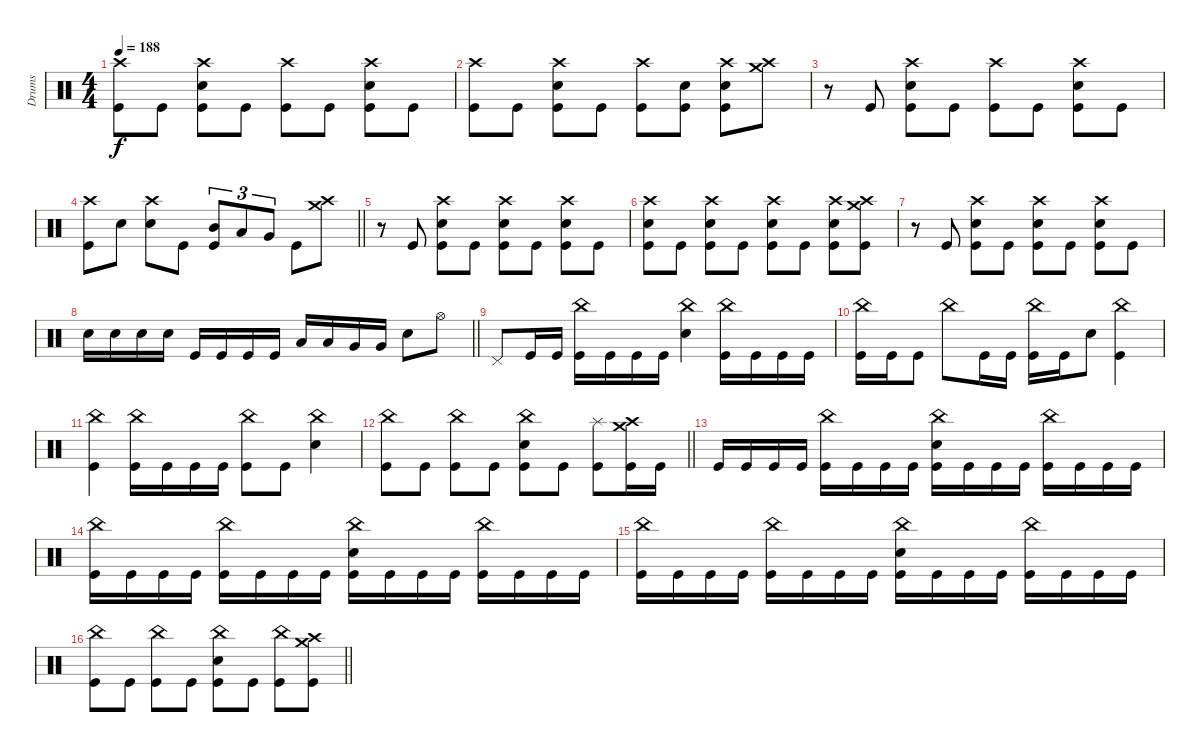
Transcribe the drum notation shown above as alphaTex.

\track ("Drums" "Drums") {instrument percussion}
\staff
\articulation defaults
\ts (4 4)
\tempo 188
\clef neutral
\ks c
("Crash high (hit)" "Kick (hit)").8{dy f} "Kick (hit)".8 ("Crash high (hit)" "Electric Snare (hit)" "Kick (hit)").8 "Kick (hit)".8 ("Crash high (hit)" "Kick (hit)").8 "Kick (hit)".8 ("Crash high (hit)" "Electric Snare (hit)" "Kick (hit)").8 "Kick (hit)".8 |
("Crash high (hit)" "Kick (hit)").8 "Kick (hit)".8 ("Crash high (hit)" "Electric Snare (hit)" "Kick (hit)").8 "Kick (hit)".8 ("Crash high (hit)" "Kick (hit)").8 ("Electric Snare (hit)" "Kick (hit)").8 ("Crash high (hit)" "Electric Snare (hit)" "Kick (hit)").8 ("Crash high (hit)" "Crash medium (hit)").8 |
r.8 "Kick (hit)".8 ("Crash high (hit)" "Electric Snare (hit)" "Kick (hit)").8 "Kick (hit)".8 ("Crash high (hit)" "Kick (hit)").8 "Kick (hit)".8 ("Crash high (hit)" "Electric Snare (hit)" "Kick (hit)").8 "Kick (hit)".8 |
\barLineRight lightlight
("Crash high (hit)" "Kick (hit)").8 "Electric Snare (hit)".8 ("Crash high (hit)" "Electric Snare (hit)").8 "Kick (hit)".8 ("Mid Tom (hit)" "Kick (hit)").8{tu (3 2)} "Low Tom (hit)".8{tu (3 2)} "Very Low Tom (hit)".8{tu (3 2)} "Kick (hit)".8 ("Crash high (hit)" "Crash medium (hit)").8 |
r.8 "Kick (hit)".8 ("Crash high (hit)" "Electric Snare (hit)" "Kick (hit)").8 "Kick (hit)".8 ("Crash high (hit)" "Electric Snare (hit)" "Kick (hit)").8 "Kick (hit)".8 ("Crash high (hit)" "Electric Snare (hit)" "Kick (hit)").8 "Kick (hit)".8 |
("Crash high (hit)" "Electric Snare (hit)" "Kick (hit)").8 "Kick (hit)".8 ("Crash high (hit)" "Electric Snare (hit)" "Kick (hit)").8 "Kick (hit)".8 ("Crash high (hit)" "Electric Snare (hit)" "Kick (hit)").8 "Kick (hit)".8 ("Crash high (hit)" "Electric Snare (hit)" "Kick (hit)").8 ("Crash high (hit)" "Crash medium (hit)" "Kick (hit)").8 |
r.8 "Kick (hit)".8 ("Crash high (hit)" "Electric Snare (hit)" "Kick (hit)").8 "Kick (hit)".8 ("Crash high (hit)" "Electric Snare (hit)" "Kick (hit)").8 "Kick (hit)".8 ("Crash high (hit)" "Electric Snare (hit)" "Kick (hit)").8 "Kick (hit)".8 |
\barLineRight lightlight "Electric Snare (hit)".16 "Electric Snare (hit)".16 "Electric Snare (hit)".16 "Electric Snare (hit)".16 "Kick (hit)".16 "Kick (hit)".16 "Kick (hit)".16 "Kick (hit)".16 "Low Tom (hit)".16 "Low Tom (hit)".16 "Very Low Tom (hit)".16 "Very Low Tom (hit)".16 "Electric Snare (hit)".8 "Hi-Hat (open)".8
|
\section ("" "")
"Pedal Hi-Hat (hit)".8 "Kick (hit)".16 "Kick (hit)".16 ("China (hit)" "Kick (hit)").16 "Kick (hit)".16 "Kick (hit)".16 "Kick (hit)".16 ("China (hit)" "Electric Snare (hit)").4 ("China (hit)" "Kick (hit)").16 "Kick (hit)".16 "Kick (hit)".16 "Kick (hit)".16 |
("China (hit)" "Kick (hit)").16 "Kick (hit)".16 "Kick (hit)".8 "China (hit)".8 "Kick (hit)".16 "Kick (hit)".16 ("China (hit)" "Kick (hit)").16 "Kick (hit)".16 "Electric Snare (hit)".8 ("China (hit)" "Kick (hit)").4 |
("China (hit)" "Kick (hit)").4 ("China (hit)" "Kick (hit)").16 "Kick (hit)".16 "Kick (hit)".16 "Kick (hit)".16 ("China (hit)" "Kick (hit)").8 "Kick (hit)".8 ("China (hit)" "Electric Snare (hit)").4 |
\barLineRight lightlight
("China (hit)" "Kick (hit)").8 "Kick (hit)".8 ("China (hit)" "Kick (hit)").8 "Kick (hit)".8 ("China (hit)" "Electric Snare (hit)" "Kick (hit)").8 "Kick (hit)".8 ("Splash (hit)" "Kick (hit)").8 ("Crash high (hit)" "Crash medium (hit)" "Kick (hit)").16 "Kick (hit)".16 |
"Kick (hit)".16 "Kick (hit)".16 "Kick (hit)".16 "Kick (hit)".16 ("China (hit)" "Kick (hit)").16 "Kick (hit)".16 "Kick (hit)".16 "Kick (hit)".16 ("China (hit)" "Electric Snare (hit)" "Kick (hit)").16 "Kick (hit)".16 "Kick (hit)".16 "Kick (hit)".16 ("China (hit)" "Kick (hit)").16 "Kick (hit)".16 "Kick (hit)".16 "Kick (hit)".16 |
("China (hit)" "Kick (hit)").16 "Kick (hit)".16 "Kick (hit)".16 "Kick (hit)".16 ("China (hit)" "Kick (hit)").16 "Kick (hit)".16 "Kick (hit)".16 "Kick (hit)".16 ("China (hit)" "Electric Snare (hit)" "Kick (hit)").16 "Kick (hit)".16 "Kick (hit)".16 "Kick (hit)".16 ("China (hit)" "Kick (hit)").16 "Kick (hit)".16 "Kick (hit)".16 "Kick (hit)".16 |
("China (hit)" "Kick (hit)").16 "Kick (hit)".16 "Kick (hit)".16 "Kick (hit)".16 ("China (hit)" "Kick (hit)").16 "Kick (hit)".16 "Kick (hit)".16 "Kick (hit)".16 ("China (hit)" "Electric Snare (hit)" "Kick (hit)").16 "Kick (hit)".16 "Kick (hit)".16 "Kick (hit)".16 ("China (hit)" "Kick (hit)").16 "Kick (hit)".16 "Kick (hit)".16 "Kick (hit)".16 |
\barLineRight lightlight
("China (hit)" "Kick (hit)").8 "Kick (hit)".8 ("China (hit)" "Kick (hit)").8 "Kick (hit)".8 ("China (hit)" "Electric Snare (hit)" "Kick (hit)").8 "Kick (hit)".8 ("China (hit)" "Kick (hit)").8 ("Crash high (hit)" "Crash medium (hit)" "Kick (hit)").8
